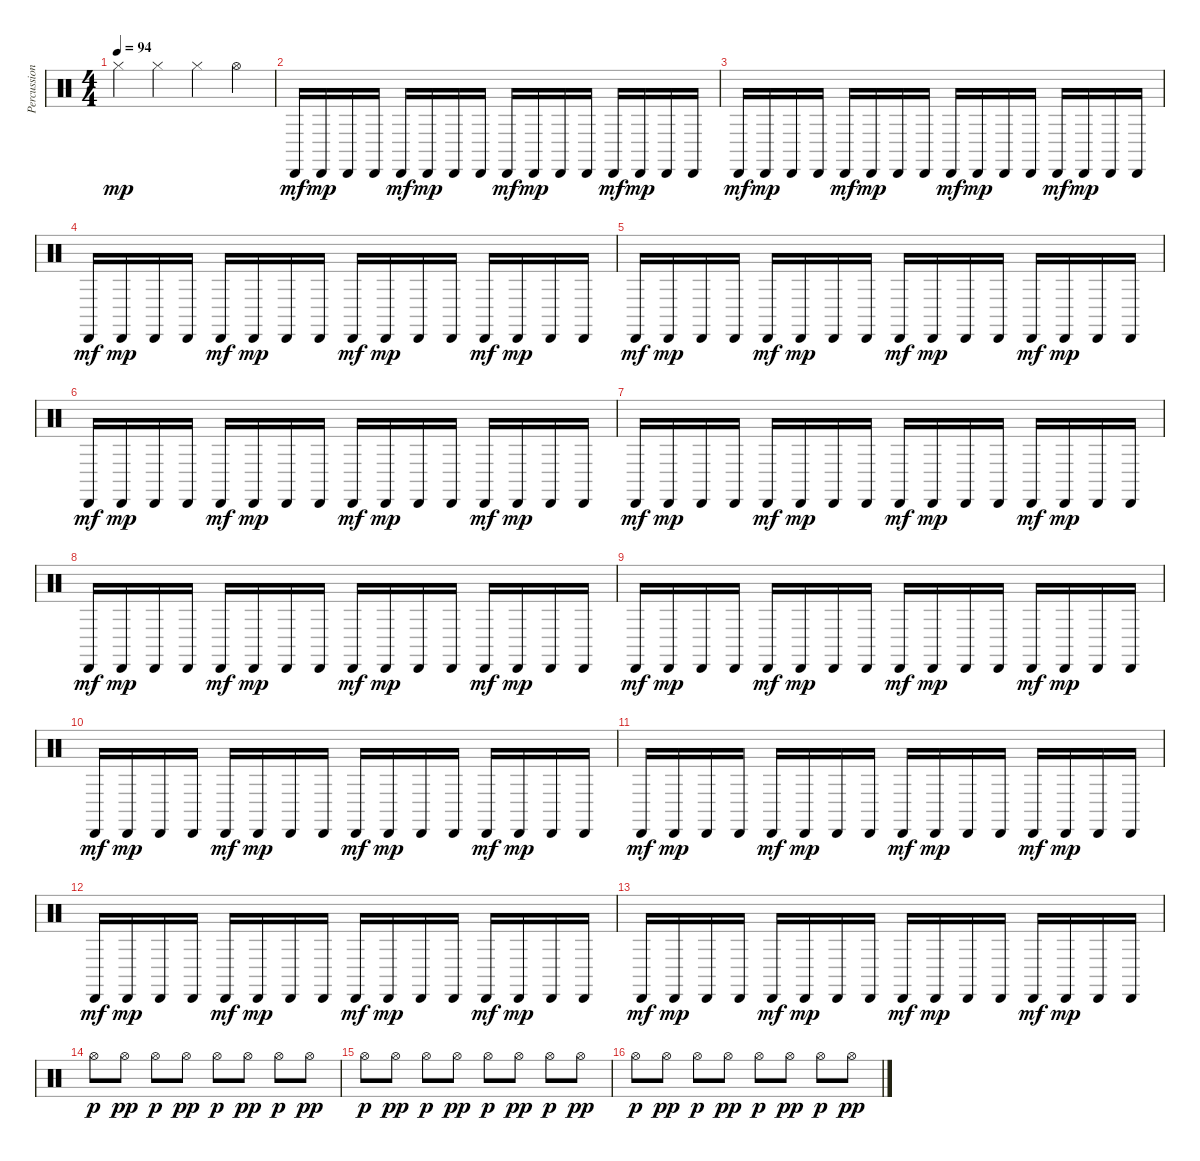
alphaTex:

\track ("Percussions" "Percussion") {instrument percussion}
\staff {score}
\articulation defaults
\ts (4 4)
\tempo 94
\clef neutral
\ks c "Hi-Hat (closed)".4{dy mp} "Hi-Hat (closed)".4 "Hi-Hat (closed)".4 "Hi-Hat (open)".4
|
"Cabasa (hit)".16{dy mf} "Cabasa (hit)".16{dy mp} "Cabasa (hit)".16 "Cabasa (hit)".16 "Cabasa (hit)".16{dy mf} "Cabasa (hit)".16{dy mp} "Cabasa (hit)".16 "Cabasa (hit)".16 "Cabasa (hit)".16{dy mf} "Cabasa (hit)".16{dy mp} "Cabasa (hit)".16 "Cabasa (hit)".16 "Cabasa (hit)".16{dy mf} "Cabasa (hit)".16{dy mp} "Cabasa (hit)".16 "Cabasa (hit)".16 |
"Cabasa (hit)".16{dy mf} "Cabasa (hit)".16{dy mp} "Cabasa (hit)".16 "Cabasa (hit)".16 "Cabasa (hit)".16{dy mf} "Cabasa (hit)".16{dy mp} "Cabasa (hit)".16 "Cabasa (hit)".16 "Cabasa (hit)".16{dy mf} "Cabasa (hit)".16{dy mp} "Cabasa (hit)".16 "Cabasa (hit)".16 "Cabasa (hit)".16{dy mf} "Cabasa (hit)".16{dy mp} "Cabasa (hit)".16 "Cabasa (hit)".16 |
"Cabasa (hit)".16{dy mf} "Cabasa (hit)".16{dy mp} "Cabasa (hit)".16 "Cabasa (hit)".16 "Cabasa (hit)".16{dy mf} "Cabasa (hit)".16{dy mp} "Cabasa (hit)".16 "Cabasa (hit)".16 "Cabasa (hit)".16{dy mf} "Cabasa (hit)".16{dy mp} "Cabasa (hit)".16 "Cabasa (hit)".16 "Cabasa (hit)".16{dy mf} "Cabasa (hit)".16{dy mp} "Cabasa (hit)".16 "Cabasa (hit)".16 |
"Cabasa (hit)".16{dy mf} "Cabasa (hit)".16{dy mp} "Cabasa (hit)".16 "Cabasa (hit)".16 "Cabasa (hit)".16{dy mf} "Cabasa (hit)".16{dy mp} "Cabasa (hit)".16 "Cabasa (hit)".16 "Cabasa (hit)".16{dy mf} "Cabasa (hit)".16{dy mp} "Cabasa (hit)".16 "Cabasa (hit)".16 "Cabasa (hit)".16{dy mf} "Cabasa (hit)".16{dy mp} "Cabasa (hit)".16 "Cabasa (hit)".16 |
"Cabasa (hit)".16{dy mf} "Cabasa (hit)".16{dy mp} "Cabasa (hit)".16 "Cabasa (hit)".16 "Cabasa (hit)".16{dy mf} "Cabasa (hit)".16{dy mp} "Cabasa (hit)".16 "Cabasa (hit)".16 "Cabasa (hit)".16{dy mf} "Cabasa (hit)".16{dy mp} "Cabasa (hit)".16 "Cabasa (hit)".16 "Cabasa (hit)".16{dy mf} "Cabasa (hit)".16{dy mp} "Cabasa (hit)".16 "Cabasa (hit)".16 |
"Cabasa (hit)".16{dy mf} "Cabasa (hit)".16{dy mp} "Cabasa (hit)".16 "Cabasa (hit)".16 "Cabasa (hit)".16{dy mf} "Cabasa (hit)".16{dy mp} "Cabasa (hit)".16 "Cabasa (hit)".16 "Cabasa (hit)".16{dy mf} "Cabasa (hit)".16{dy mp} "Cabasa (hit)".16 "Cabasa (hit)".16 "Cabasa (hit)".16{dy mf} "Cabasa (hit)".16{dy mp} "Cabasa (hit)".16 "Cabasa (hit)".16 |
"Cabasa (hit)".16{dy mf} "Cabasa (hit)".16{dy mp} "Cabasa (hit)".16 "Cabasa (hit)".16 "Cabasa (hit)".16{dy mf} "Cabasa (hit)".16{dy mp} "Cabasa (hit)".16 "Cabasa (hit)".16 "Cabasa (hit)".16{dy mf} "Cabasa (hit)".16{dy mp} "Cabasa (hit)".16 "Cabasa (hit)".16 "Cabasa (hit)".16{dy mf} "Cabasa (hit)".16{dy mp} "Cabasa (hit)".16 "Cabasa (hit)".16 |
"Cabasa (hit)".16{dy mf} "Cabasa (hit)".16{dy mp} "Cabasa (hit)".16 "Cabasa (hit)".16 "Cabasa (hit)".16{dy mf} "Cabasa (hit)".16{dy mp} "Cabasa (hit)".16 "Cabasa (hit)".16 "Cabasa (hit)".16{dy mf} "Cabasa (hit)".16{dy mp} "Cabasa (hit)".16 "Cabasa (hit)".16 "Cabasa (hit)".16{dy mf} "Cabasa (hit)".16{dy mp} "Cabasa (hit)".16 "Cabasa (hit)".16 |
"Cabasa (hit)".16{dy mf} "Cabasa (hit)".16{dy mp} "Cabasa (hit)".16 "Cabasa (hit)".16 "Cabasa (hit)".16{dy mf} "Cabasa (hit)".16{dy mp} "Cabasa (hit)".16 "Cabasa (hit)".16 "Cabasa (hit)".16{dy mf} "Cabasa (hit)".16{dy mp} "Cabasa (hit)".16 "Cabasa (hit)".16 "Cabasa (hit)".16{dy mf} "Cabasa (hit)".16{dy mp} "Cabasa (hit)".16 "Cabasa (hit)".16 |
"Cabasa (hit)".16{dy mf} "Cabasa (hit)".16{dy mp} "Cabasa (hit)".16 "Cabasa (hit)".16 "Cabasa (hit)".16{dy mf} "Cabasa (hit)".16{dy mp} "Cabasa (hit)".16 "Cabasa (hit)".16 "Cabasa (hit)".16{dy mf} "Cabasa (hit)".16{dy mp} "Cabasa (hit)".16 "Cabasa (hit)".16 "Cabasa (hit)".16{dy mf} "Cabasa (hit)".16{dy mp} "Cabasa (hit)".16 "Cabasa (hit)".16 |
"Cabasa (hit)".16{dy mf} "Cabasa (hit)".16{dy mp} "Cabasa (hit)".16 "Cabasa (hit)".16 "Cabasa (hit)".16{dy mf} "Cabasa (hit)".16{dy mp} "Cabasa (hit)".16 "Cabasa (hit)".16 "Cabasa (hit)".16{dy mf} "Cabasa (hit)".16{dy mp} "Cabasa (hit)".16 "Cabasa (hit)".16 "Cabasa (hit)".16{dy mf} "Cabasa (hit)".16{dy mp} "Cabasa (hit)".16 "Cabasa (hit)".16 |
"Cabasa (hit)".16{dy mf} "Cabasa (hit)".16{dy mp} "Cabasa (hit)".16 "Cabasa (hit)".16 "Cabasa (hit)".16{dy mf} "Cabasa (hit)".16{dy mp} "Cabasa (hit)".16 "Cabasa (hit)".16 "Cabasa (hit)".16{dy mf} "Cabasa (hit)".16{dy mp} "Cabasa (hit)".16 "Cabasa (hit)".16 "Cabasa (hit)".16{dy mf} "Cabasa (hit)".16{dy mp} "Cabasa (hit)".16 "Cabasa (hit)".16 |
"Hi-Hat (open)".8{dy p} "Hi-Hat (open)".8{dy pp} "Hi-Hat (open)".8{dy p} "Hi-Hat (open)".8{dy pp} "Hi-Hat (open)".8{dy p} "Hi-Hat (open)".8{dy pp} "Hi-Hat (open)".8{dy p} "Hi-Hat (open)".8{dy pp} |
"Hi-Hat (open)".8{dy p} "Hi-Hat (open)".8{dy pp} "Hi-Hat (open)".8{dy p} "Hi-Hat (open)".8{dy pp} "Hi-Hat (open)".8{dy p} "Hi-Hat (open)".8{dy pp} "Hi-Hat (open)".8{dy p} "Hi-Hat (open)".8{dy pp} |
"Hi-Hat (open)".8{dy p} "Hi-Hat (open)".8{dy pp} "Hi-Hat (open)".8{dy p} "Hi-Hat (open)".8{dy pp} "Hi-Hat (open)".8{dy p} "Hi-Hat (open)".8{dy pp} "Hi-Hat (open)".8{dy p} "Hi-Hat (open)".8{dy pp}
